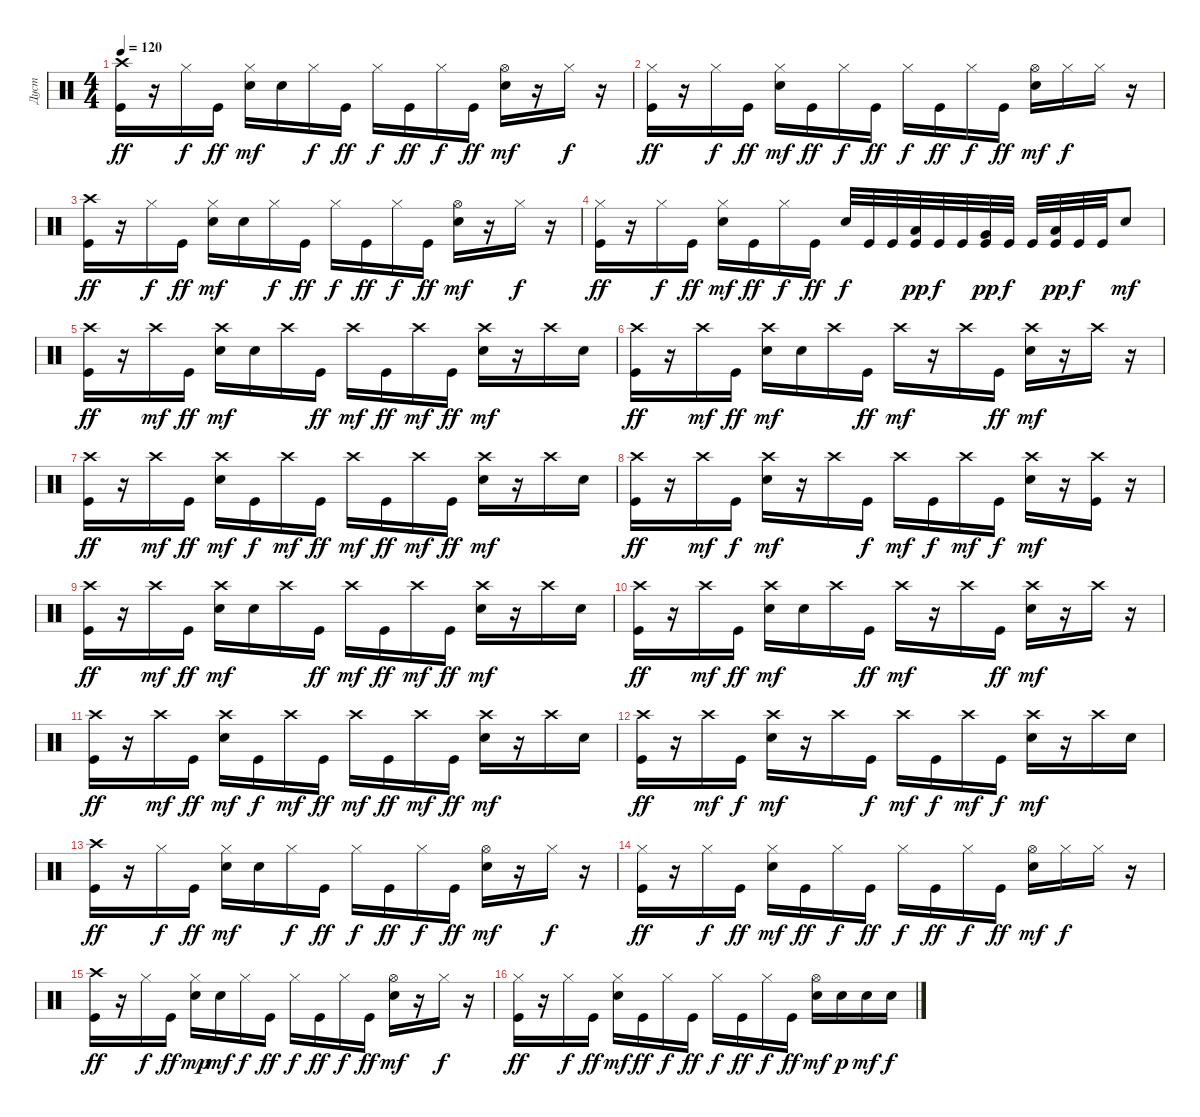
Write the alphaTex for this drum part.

\track ("Дуст" "Дуст") {instrument percussion}
\staff {score}
\articulation defaults
\ts (4 4)
\tempo 120
\clef neutral
\ks c
("Crash high (hit)" "Kick (hit)").16{dy ff} r.16 "Hi-Hat (closed)".16{dy f} "Kick (hit)".16{dy ff} ("Hi-Hat (closed)" "Metronome (bell)").16{dy mf} "Metronome (bell)".16 "Hi-Hat (closed)".16{dy f} "Kick (hit)".16{dy ff} "Hi-Hat (closed)".16{dy f} "Kick (hit)".16{dy ff} "Hi-Hat (closed)".16{dy f} "Kick (hit)".16{dy ff} ("Hi-Hat (open)" "Metronome (bell)").16{dy mf} r.16 "Hi-Hat (closed)".16{dy f} r.16 |
("Hi-Hat (closed)" "Kick (hit)").16{dy ff} r.16 "Hi-Hat (closed)".16{dy f} "Kick (hit)".16{dy ff} ("Hi-Hat (closed)" "Metronome (bell)").16{dy mf} "Kick (hit)".16{dy ff} "Hi-Hat (closed)".16{dy f} "Kick (hit)".16{dy ff} "Hi-Hat (closed)".16{dy f} "Kick (hit)".16{dy ff} "Hi-Hat (closed)".16{dy f} "Kick (hit)".16{dy ff} ("Hi-Hat (open)" "Metronome (bell)").16{dy mf} "Hi-Hat (closed)".16{dy f} "Hi-Hat (closed)".16 r.16 |
("Crash high (hit)" "Kick (hit)").16{dy ff} r.16 "Hi-Hat (closed)".16{dy f} "Kick (hit)".16{dy ff} ("Hi-Hat (closed)" "Metronome (bell)").16{dy mf} "Metronome (bell)".16 "Hi-Hat (closed)".16{dy f} "Kick (hit)".16{dy ff} "Hi-Hat (closed)".16{dy f} "Kick (hit)".16{dy ff} "Hi-Hat (closed)".16{dy f} "Kick (hit)".16{dy ff} ("Hi-Hat (open)" "Metronome (bell)").16{dy mf} r.16 "Hi-Hat (closed)".16{dy f} r.16 |
("Hi-Hat (closed)" "Kick (hit)").16{dy ff} r.16 "Hi-Hat (closed)".16{dy f} "Kick (hit)".16{dy ff} ("Hi-Hat (closed)" "Metronome (bell)").16{dy mf} "Kick (hit)".16{dy ff} "Hi-Hat (closed)".16{dy f} "Kick (hit)".16{dy ff} "Metronome (bell)".32{dy f} "Kick (hit)".32 "Kick (hit)".32 ("Low Tom (hit)" "Kick (hit)").32{dy pp} "Kick (hit)".32{dy f} "Kick (hit)".32 ("Very Low Tom (hit)" "Kick (hit)").32{dy pp} "Kick (hit)".32{dy f} "Kick (hit)".32 ("Low Floor Tom (hit)" "Kick (hit)").32{dy pp} "Kick (hit)".32{dy f} "Kick (hit)".32 "Metronome (bell)".8{dy mf} |
("Crash high (hit)" "Kick (hit)").16{dy ff} r.16 "Crash high (hit)".16{dy mf} "Kick (hit)".16{dy ff} ("Crash high (hit)" "Metronome (bell)").16{dy mf} "Metronome (bell)".16 "Crash high (hit)".16 "Kick (hit)".16{dy ff} "Crash high (hit)".16{dy mf} "Kick (hit)".16{dy ff} "Crash high (hit)".16{dy mf} "Kick (hit)".16{dy ff} ("Crash high (hit)" "Metronome (bell)").16{dy mf} r.16 "Crash high (hit)".16 "Metronome (bell)".16 |
("Crash high (hit)" "Kick (hit)").16{dy ff} r.16 "Crash high (hit)".16{dy mf} "Kick (hit)".16{dy ff} ("Crash high (hit)" "Metronome (bell)").16{dy mf} "Metronome (bell)".16 "Crash high (hit)".16 "Kick (hit)".16{dy ff} "Crash high (hit)".16{dy mf} r.16 "Crash high (hit)".16 "Kick (hit)".16{dy ff} ("Crash high (hit)" "Metronome (bell)").16{dy mf} r.16 "Crash high (hit)".16 r.16 |
("Crash high (hit)" "Kick (hit)").16{dy ff} r.16 "Crash high (hit)".16{dy mf} "Kick (hit)".16{dy ff} ("Crash high (hit)" "Metronome (bell)").16{dy mf} "Kick (hit)".16{dy f} "Crash high (hit)".16{dy mf} "Kick (hit)".16{dy ff} "Crash high (hit)".16{dy mf} "Kick (hit)".16{dy ff} "Crash high (hit)".16{dy mf} "Kick (hit)".16{dy ff} ("Crash high (hit)" "Metronome (bell)").16{dy mf} r.16 "Crash high (hit)".16 "Metronome (bell)".16 |
("Crash high (hit)" "Kick (hit)").16{dy ff} r.16 "Crash high (hit)".16{dy mf} "Kick (hit)".16{dy f} ("Crash high (hit)" "Metronome (bell)").16{dy mf} r.16 "Crash high (hit)".16 "Kick (hit)".16{dy f} "Crash high (hit)".16{dy mf} "Kick (hit)".16{dy f} "Crash high (hit)".16{dy mf} "Kick (hit)".16{dy f} ("Crash high (hit)" "Metronome (bell)").16{dy mf} r.16 ("Crash high (hit)" "Kick (hit)").16 r.16 |
("Crash high (hit)" "Kick (hit)").16{dy ff} r.16 "Crash high (hit)".16{dy mf} "Kick (hit)".16{dy ff} ("Crash high (hit)" "Metronome (bell)").16{dy mf} "Metronome (bell)".16 "Crash high (hit)".16 "Kick (hit)".16{dy ff} "Crash high (hit)".16{dy mf} "Kick (hit)".16{dy ff} "Crash high (hit)".16{dy mf} "Kick (hit)".16{dy ff} ("Crash high (hit)" "Metronome (bell)").16{dy mf} r.16 "Crash high (hit)".16 "Metronome (bell)".16 |
("Crash high (hit)" "Kick (hit)").16{dy ff} r.16 "Crash high (hit)".16{dy mf} "Kick (hit)".16{dy ff} ("Crash high (hit)" "Metronome (bell)").16{dy mf} "Metronome (bell)".16 "Crash high (hit)".16 "Kick (hit)".16{dy ff} "Crash high (hit)".16{dy mf} r.16 "Crash high (hit)".16 "Kick (hit)".16{dy ff} ("Crash high (hit)" "Metronome (bell)").16{dy mf} r.16 "Crash high (hit)".16 r.16 |
("Crash high (hit)" "Kick (hit)").16{dy ff} r.16 "Crash high (hit)".16{dy mf} "Kick (hit)".16{dy ff} ("Crash high (hit)" "Metronome (bell)").16{dy mf} "Kick (hit)".16{dy f} "Crash high (hit)".16{dy mf} "Kick (hit)".16{dy ff} "Crash high (hit)".16{dy mf} "Kick (hit)".16{dy ff} "Crash high (hit)".16{dy mf} "Kick (hit)".16{dy ff} ("Crash high (hit)" "Metronome (bell)").16{dy mf} r.16 "Crash high (hit)".16 "Metronome (bell)".16 |
("Crash high (hit)" "Kick (hit)").16{dy ff} r.16 "Crash high (hit)".16{dy mf} "Kick (hit)".16{dy f} ("Crash high (hit)" "Metronome (bell)").16{dy mf} r.16 "Crash high (hit)".16 "Kick (hit)".16{dy f} "Crash high (hit)".16{dy mf} "Kick (hit)".16{dy f} "Crash high (hit)".16{dy mf} "Kick (hit)".16{dy f} ("Crash high (hit)" "Metronome (bell)").16{dy mf} r.16 "Crash high (hit)".16 "Metronome (bell)".16 |
("Crash high (hit)" "Kick (hit)").16{dy ff} r.16 "Hi-Hat (closed)".16{dy f} "Kick (hit)".16{dy ff} ("Hi-Hat (closed)" "Metronome (bell)").16{dy mf} "Metronome (bell)".16 "Hi-Hat (closed)".16{dy f} "Kick (hit)".16{dy ff} "Hi-Hat (closed)".16{dy f} "Kick (hit)".16{dy ff} "Hi-Hat (closed)".16{dy f} "Kick (hit)".16{dy ff} ("Hi-Hat (open)" "Metronome (bell)").16{dy mf} r.16 "Hi-Hat (closed)".16{dy f} r.16 |
("Hi-Hat (closed)" "Kick (hit)").16{dy ff} r.16 "Hi-Hat (closed)".16{dy f} "Kick (hit)".16{dy ff} ("Hi-Hat (closed)" "Metronome (bell)").16{dy mf} "Kick (hit)".16{dy ff} "Hi-Hat (closed)".16{dy f} "Kick (hit)".16{dy ff} "Hi-Hat (closed)".16{dy f} "Kick (hit)".16{dy ff} "Hi-Hat (closed)".16{dy f} "Kick (hit)".16{dy ff} ("Hi-Hat (open)" "Metronome (bell)").16{dy mf} "Hi-Hat (closed)".16{dy f} "Hi-Hat (closed)".16 r.16 |
("Crash high (hit)" "Kick (hit)").16{dy ff} r.16 "Hi-Hat (closed)".16{dy f} "Kick (hit)".16{dy ff} ("Hi-Hat (closed)" "Metronome (bell)").16{dy mp} "Metronome (bell)".16{dy mf} "Hi-Hat (closed)".16{dy f} "Kick (hit)".16{dy ff} "Hi-Hat (closed)".16{dy f} "Kick (hit)".16{dy ff} "Hi-Hat (closed)".16{dy f} "Kick (hit)".16{dy ff} ("Hi-Hat (open)" "Metronome (bell)").16{dy mf} r.16 "Hi-Hat (closed)".16{dy f} r.16 |
("Hi-Hat (closed)" "Kick (hit)").16{dy ff} r.16 "Hi-Hat (closed)".16{dy f} "Kick (hit)".16{dy ff} ("Hi-Hat (closed)" "Metronome (bell)").16{dy mf} "Kick (hit)".16{dy ff} "Hi-Hat (closed)".16{dy f} "Kick (hit)".16{dy ff} "Hi-Hat (closed)".16{dy f} "Kick (hit)".16{dy ff} "Hi-Hat (closed)".16{dy f} "Kick (hit)".16{dy ff} ("Hi-Hat (open)" "Metronome (bell)").16{dy mf} "Metronome (bell)".16{dy p} "Metronome (bell)".16{dy mf} "Metronome (bell)".16{dy f}
